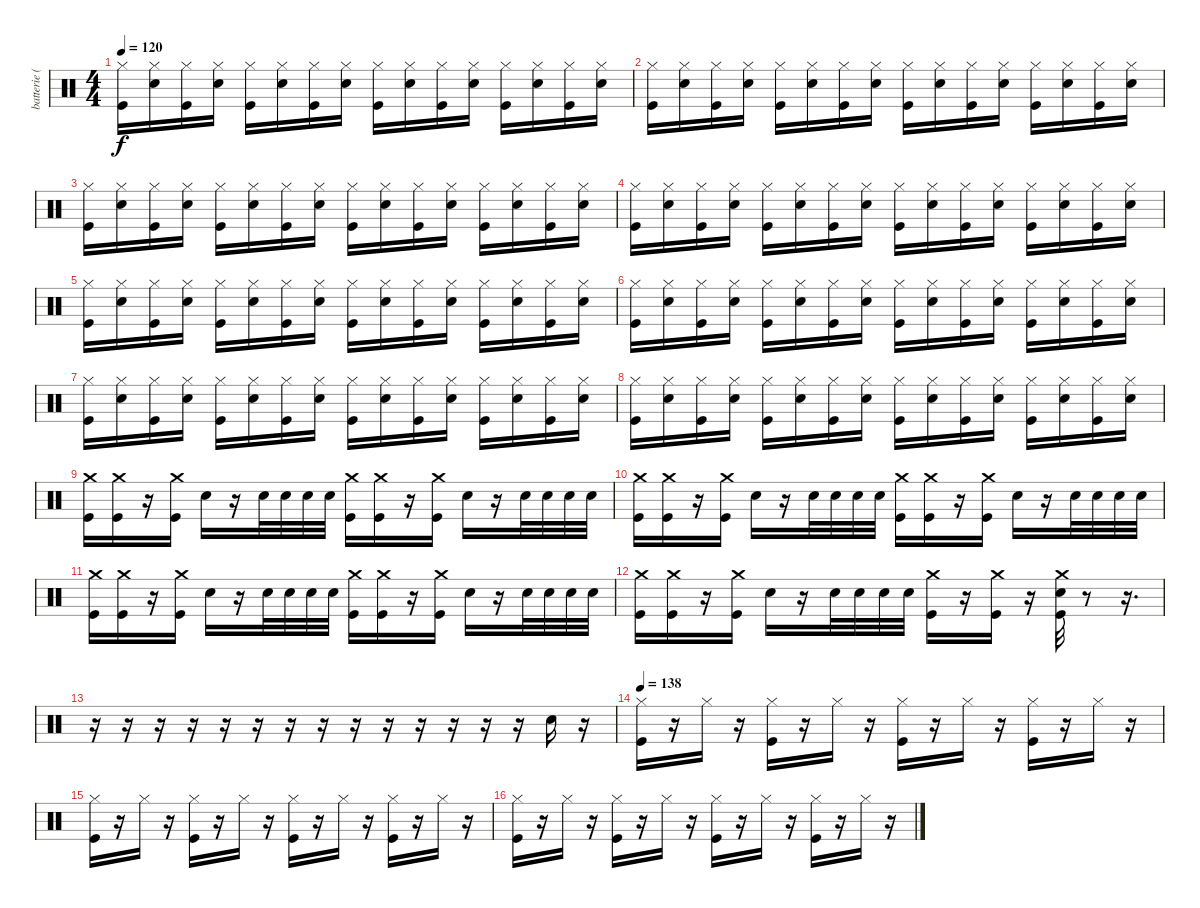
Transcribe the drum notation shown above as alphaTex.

\track ("batterie ( Jeff Nelson ) " "batterie (") {instrument percussion}
\staff {score}
\articulation defaults
\ts (4 4)
\tempo 120
\clef neutral
\ks c
("Hi-Hat (closed)" "Kick (hit)").16{dy f} ("Hi-Hat (closed)" "Snare (hit) 2").16 ("Hi-Hat (closed)" "Kick (hit)").16 ("Hi-Hat (closed)" "Snare (hit) 2").16 ("Hi-Hat (closed)" "Kick (hit)").16 ("Hi-Hat (closed)" "Snare (hit) 2").16 ("Hi-Hat (closed)" "Kick (hit)").16 ("Hi-Hat (closed)" "Snare (hit) 2").16 ("Hi-Hat (closed)" "Kick (hit)").16 ("Hi-Hat (closed)" "Snare (hit) 2").16 ("Hi-Hat (closed)" "Kick (hit)").16 ("Hi-Hat (closed)" "Snare (hit) 2").16 ("Hi-Hat (closed)" "Kick (hit)").16 ("Hi-Hat (closed)" "Snare (hit) 2").16 ("Hi-Hat (closed)" "Kick (hit)").16 ("Hi-Hat (closed)" "Snare (hit) 2").16 |
("Hi-Hat (closed)" "Kick (hit)").16 ("Hi-Hat (closed)" "Snare (hit) 2").16 ("Hi-Hat (closed)" "Kick (hit)").16 ("Hi-Hat (closed)" "Snare (hit) 2").16 ("Hi-Hat (closed)" "Kick (hit)").16 ("Hi-Hat (closed)" "Snare (hit) 2").16 ("Hi-Hat (closed)" "Kick (hit)").16 ("Hi-Hat (closed)" "Snare (hit) 2").16 ("Hi-Hat (closed)" "Kick (hit)").16 ("Hi-Hat (closed)" "Snare (hit) 2").16 ("Hi-Hat (closed)" "Kick (hit)").16 ("Hi-Hat (closed)" "Snare (hit) 2").16 ("Hi-Hat (closed)" "Kick (hit)").16 ("Hi-Hat (closed)" "Snare (hit) 2").16 ("Hi-Hat (closed)" "Kick (hit)").16 ("Hi-Hat (closed)" "Snare (hit) 2").16 |
("Hi-Hat (closed)" "Kick (hit)").16 ("Hi-Hat (closed)" "Snare (hit) 2").16 ("Hi-Hat (closed)" "Kick (hit)").16 ("Hi-Hat (closed)" "Snare (hit) 2").16 ("Hi-Hat (closed)" "Kick (hit)").16 ("Hi-Hat (closed)" "Snare (hit) 2").16 ("Hi-Hat (closed)" "Kick (hit)").16 ("Hi-Hat (closed)" "Snare (hit) 2").16 ("Hi-Hat (closed)" "Kick (hit)").16 ("Hi-Hat (closed)" "Snare (hit) 2").16 ("Hi-Hat (closed)" "Kick (hit)").16 ("Hi-Hat (closed)" "Snare (hit) 2").16 ("Hi-Hat (closed)" "Kick (hit)").16 ("Hi-Hat (closed)" "Snare (hit) 2").16 ("Hi-Hat (closed)" "Kick (hit)").16 ("Hi-Hat (closed)" "Snare (hit) 2").16 |
("Hi-Hat (closed)" "Kick (hit)").16 ("Hi-Hat (closed)" "Snare (hit) 2").16 ("Hi-Hat (closed)" "Kick (hit)").16 ("Hi-Hat (closed)" "Snare (hit) 2").16 ("Hi-Hat (closed)" "Kick (hit)").16 ("Hi-Hat (closed)" "Snare (hit) 2").16 ("Hi-Hat (closed)" "Kick (hit)").16 ("Hi-Hat (closed)" "Snare (hit) 2").16 ("Hi-Hat (closed)" "Kick (hit)").16 ("Hi-Hat (closed)" "Snare (hit) 2").16 ("Hi-Hat (closed)" "Kick (hit)").16 ("Hi-Hat (closed)" "Snare (hit) 2").16 ("Hi-Hat (closed)" "Kick (hit)").16 ("Hi-Hat (closed)" "Snare (hit) 2").16 ("Hi-Hat (closed)" "Kick (hit)").16 ("Hi-Hat (closed)" "Snare (hit) 2").16 |
("Hi-Hat (closed)" "Kick (hit)").16 ("Hi-Hat (closed)" "Snare (hit) 2").16 ("Hi-Hat (closed)" "Kick (hit)").16 ("Hi-Hat (closed)" "Snare (hit) 2").16 ("Hi-Hat (closed)" "Kick (hit)").16 ("Hi-Hat (closed)" "Snare (hit) 2").16 ("Hi-Hat (closed)" "Kick (hit)").16 ("Hi-Hat (closed)" "Snare (hit) 2").16 ("Hi-Hat (closed)" "Kick (hit)").16 ("Hi-Hat (closed)" "Snare (hit) 2").16 ("Hi-Hat (closed)" "Kick (hit)").16 ("Hi-Hat (closed)" "Snare (hit) 2").16 ("Hi-Hat (closed)" "Kick (hit)").16 ("Hi-Hat (closed)" "Snare (hit) 2").16 ("Hi-Hat (closed)" "Kick (hit)").16 ("Hi-Hat (closed)" "Snare (hit) 2").16 |
("Hi-Hat (closed)" "Kick (hit)").16 ("Hi-Hat (closed)" "Snare (hit) 2").16 ("Hi-Hat (closed)" "Kick (hit)").16 ("Hi-Hat (closed)" "Snare (hit) 2").16 ("Hi-Hat (closed)" "Kick (hit)").16 ("Hi-Hat (closed)" "Snare (hit) 2").16 ("Hi-Hat (closed)" "Kick (hit)").16 ("Hi-Hat (closed)" "Snare (hit) 2").16 ("Hi-Hat (closed)" "Kick (hit)").16 ("Hi-Hat (closed)" "Snare (hit) 2").16 ("Hi-Hat (closed)" "Kick (hit)").16 ("Hi-Hat (closed)" "Snare (hit) 2").16 ("Hi-Hat (closed)" "Kick (hit)").16 ("Hi-Hat (closed)" "Snare (hit) 2").16 ("Hi-Hat (closed)" "Kick (hit)").16 ("Hi-Hat (closed)" "Snare (hit) 2").16 |
("Hi-Hat (closed)" "Kick (hit)").16 ("Hi-Hat (closed)" "Snare (hit) 2").16 ("Hi-Hat (closed)" "Kick (hit)").16 ("Hi-Hat (closed)" "Snare (hit) 2").16 ("Hi-Hat (closed)" "Kick (hit)").16 ("Hi-Hat (closed)" "Snare (hit) 2").16 ("Hi-Hat (closed)" "Kick (hit)").16 ("Hi-Hat (closed)" "Snare (hit) 2").16 ("Hi-Hat (closed)" "Kick (hit)").16 ("Hi-Hat (closed)" "Snare (hit) 2").16 ("Hi-Hat (closed)" "Kick (hit)").16 ("Hi-Hat (closed)" "Snare (hit) 2").16 ("Hi-Hat (closed)" "Kick (hit)").16 ("Hi-Hat (closed)" "Snare (hit) 2").16 ("Hi-Hat (closed)" "Kick (hit)").16 ("Hi-Hat (closed)" "Snare (hit) 2").16 |
("Hi-Hat (closed)" "Kick (hit)").16 ("Hi-Hat (closed)" "Snare (hit) 2").16 ("Hi-Hat (closed)" "Kick (hit)").16 ("Hi-Hat (closed)" "Snare (hit) 2").16 ("Hi-Hat (closed)" "Kick (hit)").16 ("Hi-Hat (closed)" "Snare (hit) 2").16 ("Hi-Hat (closed)" "Kick (hit)").16 ("Hi-Hat (closed)" "Snare (hit) 2").16 ("Hi-Hat (closed)" "Kick (hit)").16 ("Hi-Hat (closed)" "Snare (hit) 2").16 ("Hi-Hat (closed)" "Kick (hit)").16 ("Hi-Hat (closed)" "Snare (hit) 2").16 ("Hi-Hat (closed)" "Kick (hit)").16 ("Hi-Hat (closed)" "Snare (hit) 2").16 ("Hi-Hat (closed)" "Kick (hit)").16 ("Hi-Hat (closed)" "Snare (hit) 2").16 |
("Crash medium (hit)" "Kick (hit)").16 ("Crash medium (hit)" "Kick (hit)").16 r.16 ("Crash medium (hit)" "Kick (hit)").16 "Snare (hit) 2".16 r.16 "Snare (hit) 2".32 "Snare (hit) 2".32 "Snare (hit) 2".32 "Snare (hit) 2".32 ("Crash medium (hit)" "Kick (hit)").16 ("Crash medium (hit)" "Kick (hit)").16 r.16 ("Crash medium (hit)" "Kick (hit)").16 "Snare (hit) 2".16 r.16 "Snare (hit) 2".32 "Snare (hit) 2".32 "Snare (hit) 2".32 "Snare (hit) 2".32 |
("Crash medium (hit)" "Kick (hit)").16 ("Crash medium (hit)" "Kick (hit)").16 r.16 ("Crash medium (hit)" "Kick (hit)").16 "Snare (hit) 2".16 r.16 "Snare (hit) 2".32 "Snare (hit) 2".32 "Snare (hit) 2".32 "Snare (hit) 2".32 ("Crash medium (hit)" "Kick (hit)").16 ("Crash medium (hit)" "Kick (hit)").16 r.16 ("Crash medium (hit)" "Kick (hit)").16 "Snare (hit) 2".16 r.16 "Snare (hit) 2".32 "Snare (hit) 2".32 "Snare (hit) 2".32 "Snare (hit) 2".32 |
("Crash medium (hit)" "Kick (hit)").16 ("Crash medium (hit)" "Kick (hit)").16 r.16 ("Crash medium (hit)" "Kick (hit)").16 "Snare (hit) 2".16 r.16 "Snare (hit) 2".32 "Snare (hit) 2".32 "Snare (hit) 2".32 "Snare (hit) 2".32 ("Crash medium (hit)" "Kick (hit)").16 ("Crash medium (hit)" "Kick (hit)").16 r.16 ("Crash medium (hit)" "Kick (hit)").16 "Snare (hit) 2".16 r.16 "Snare (hit) 2".32 "Snare (hit) 2".32 "Snare (hit) 2".32 "Snare (hit) 2".32 |
("Crash medium (hit)" "Kick (hit)").16 ("Crash medium (hit)" "Kick (hit)").16 r.16 ("Crash medium (hit)" "Kick (hit)").16 "Snare (hit) 2".16 r.16 "Snare (hit) 2".32 "Snare (hit) 2".32 "Snare (hit) 2".32 "Snare (hit) 2".32 ("Crash medium (hit)" "Kick (hit)").16 r.16 ("Crash medium (hit)" "Kick (hit)").16 r.16 ("Crash medium (hit)" "Snare (hit) 2" "Kick (hit)").32 r.8 r.16{d} |
r.16 r.16 r.16 r.16 r.16 r.16 r.16 r.16 r.16 r.16 r.16 r.16 r.16 r.16 "Snare (hit) 2".16{volume 16} r.16{volume 9} |
\tempo 138
("Hi-Hat (closed)" "Kick (hit)").16 r.16 "Hi-Hat (closed)".16 r.16 ("Hi-Hat (closed)" "Kick (hit)").16 r.16 "Hi-Hat (closed)".16 r.16 ("Hi-Hat (closed)" "Kick (hit)").16 r.16 "Hi-Hat (closed)".16 r.16 ("Hi-Hat (closed)" "Kick (hit)").16 r.16 "Hi-Hat (closed)".16 r.16 |
("Hi-Hat (closed)" "Kick (hit)").16 r.16 "Hi-Hat (closed)".16 r.16 ("Hi-Hat (closed)" "Kick (hit)").16 r.16 "Hi-Hat (closed)".16 r.16 ("Hi-Hat (closed)" "Kick (hit)").16 r.16 "Hi-Hat (closed)".16 r.16 ("Hi-Hat (closed)" "Kick (hit)").16 r.16 "Hi-Hat (closed)".16 r.16 |
("Hi-Hat (closed)" "Kick (hit)").16 r.16 "Hi-Hat (closed)".16 r.16 ("Hi-Hat (closed)" "Kick (hit)").16 r.16 "Hi-Hat (closed)".16 r.16 ("Hi-Hat (closed)" "Kick (hit)").16 r.16 "Hi-Hat (closed)".16 r.16 ("Hi-Hat (closed)" "Kick (hit)").16 r.16 "Hi-Hat (closed)".16 r.16
